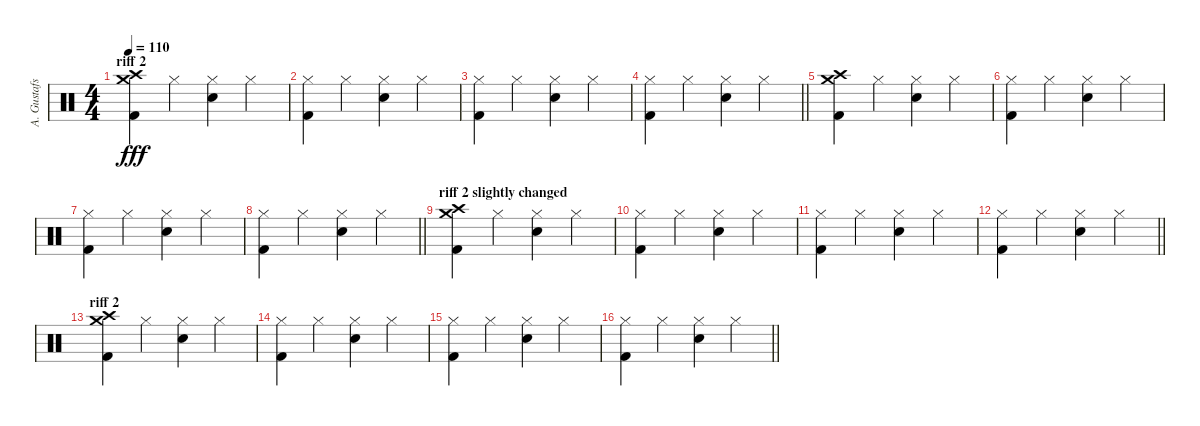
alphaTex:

\track ("A. Gustafsson" "A. Gustafs") {instrument percussion}
\staff {score}
\articulation defaults
\ts (4 4)
\section ("" "riff 2")
\tempo 110
\clef neutral
\ks c
("Crash high (hit)" "Crash medium (hit)" "Kick (hit) 2").4{dy fff} "Hi-Hat (closed)".4 ("Hi-Hat (closed)" "Snare (hit) 2").4 "Hi-Hat (closed)".4 |
("Hi-Hat (closed)" "Kick (hit) 2").4 "Hi-Hat (closed)".4 ("Hi-Hat (closed)" "Snare (hit) 2").4 "Hi-Hat (closed)".4 |
("Hi-Hat (closed)" "Kick (hit) 2").4 "Hi-Hat (closed)".4 ("Hi-Hat (closed)" "Snare (hit) 2").4 "Hi-Hat (closed)".4 |
\barLineRight lightlight
("Hi-Hat (closed)" "Kick (hit) 2").4 "Hi-Hat (closed)".4 ("Hi-Hat (closed)" "Snare (hit) 2").4 "Hi-Hat (closed)".4 |
("Crash high (hit)" "Crash medium (hit)" "Kick (hit) 2").4 "Hi-Hat (closed)".4 ("Hi-Hat (closed)" "Snare (hit) 2").4 "Hi-Hat (closed)".4 |
("Hi-Hat (closed)" "Kick (hit) 2").4 "Hi-Hat (closed)".4 ("Hi-Hat (closed)" "Snare (hit) 2").4 "Hi-Hat (closed)".4 |
("Hi-Hat (closed)" "Kick (hit) 2").4 "Hi-Hat (closed)".4 ("Hi-Hat (closed)" "Snare (hit) 2").4 "Hi-Hat (closed)".4 |
\barLineRight lightlight
("Hi-Hat (closed)" "Kick (hit) 2").4 "Hi-Hat (closed)".4 ("Hi-Hat (closed)" "Snare (hit) 2").4 "Hi-Hat (closed)".4 |
\section ("" "riff 2 slightly changed")
("Crash high (hit)" "Crash medium (hit)" "Kick (hit) 2").4 "Hi-Hat (closed)".4 ("Hi-Hat (closed)" "Snare (hit) 2").4 "Hi-Hat (closed)".4 |
("Hi-Hat (closed)" "Kick (hit) 2").4 "Hi-Hat (closed)".4 ("Hi-Hat (closed)" "Snare (hit) 2").4 "Hi-Hat (closed)".4 |
("Hi-Hat (closed)" "Kick (hit) 2").4 "Hi-Hat (closed)".4 ("Hi-Hat (closed)" "Snare (hit) 2").4 "Hi-Hat (closed)".4 |
\barLineRight lightlight
("Hi-Hat (closed)" "Kick (hit) 2").4 "Hi-Hat (closed)".4 ("Hi-Hat (closed)" "Snare (hit) 2").4 "Hi-Hat (closed)".4 |
\section ("" "riff 2")
("Crash high (hit)" "Crash medium (hit)" "Kick (hit) 2").4 "Hi-Hat (closed)".4 ("Hi-Hat (closed)" "Snare (hit) 2").4 "Hi-Hat (closed)".4 |
("Hi-Hat (closed)" "Kick (hit) 2").4 "Hi-Hat (closed)".4 ("Hi-Hat (closed)" "Snare (hit) 2").4 "Hi-Hat (closed)".4 |
("Hi-Hat (closed)" "Kick (hit) 2").4 "Hi-Hat (closed)".4 ("Hi-Hat (closed)" "Snare (hit) 2").4 "Hi-Hat (closed)".4 |
\barLineRight lightlight
("Hi-Hat (closed)" "Kick (hit) 2").4 "Hi-Hat (closed)".4 ("Hi-Hat (closed)" "Snare (hit) 2").4 "Hi-Hat (closed)".4
